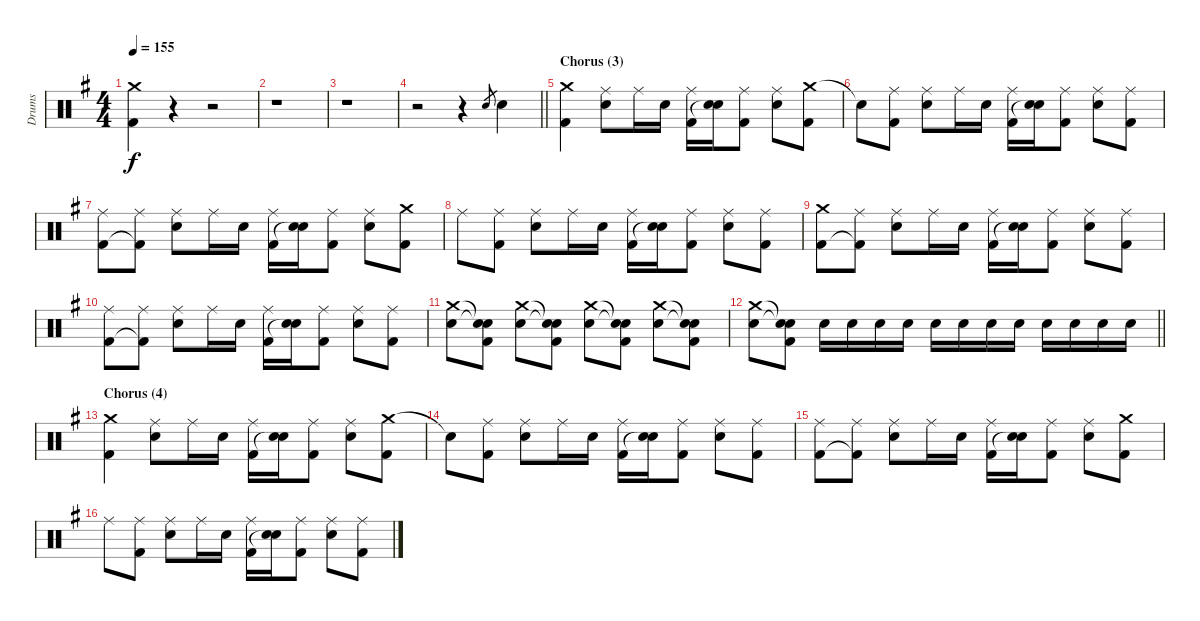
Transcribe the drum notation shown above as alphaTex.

\track ("Drums" "Drums") {instrument percussion}
\staff {score}
\articulation defaults
\ts (4 4)
\tempo 155
\clef neutral
\ks eminor
("Crash medium (hit)" "Kick (hit) 2").4{dy f} r.4 r.2 |
r.1 |
r.1 |
\barLineRight lightlight
r.2 r.4 "Electric Snare (hit)".8{gr} "Electric Snare (hit)".4 |
\section ("" "Chorus (3)")
("Crash medium (hit)" "Kick (hit) 2").4 ("Ride (middle)" "Electric Snare (hit)").8 "Ride (middle)".16 "Electric Snare (hit)".16 ("Ride (middle)" "Kick (hit) 2").16 ("Electric Snare (hit)" "Snare (hit)"{t}).16 ("Ride (middle)" "Kick (hit) 2").8 ("Ride (middle)" "Electric Snare (hit)").8 ("Crash medium (hit)" "Kick (hit) 2").8 |
"Snare (hit)"{t}.8 ("Ride (middle)" "Kick (hit) 2").8 ("Ride (middle)" "Electric Snare (hit)").8 "Ride (middle)".16 "Electric Snare (hit)".16 ("Ride (middle)" "Kick (hit) 2").16 ("Electric Snare (hit)" "Snare (hit)"{t}).16 ("Ride (middle)" "Kick (hit) 2").8 ("Ride (middle)" "Electric Snare (hit)").8 ("Ride (middle)" "Kick (hit) 2").8 |
("Ride (middle)" "Kick (hit) 2").8 ("Ride (middle)" "Kick (hit) 2"{t}).8 ("Ride (middle)" "Electric Snare (hit)").8 "Ride (middle)".16 "Electric Snare (hit)".16 ("Ride (middle)" "Kick (hit) 2").16 ("Electric Snare (hit)" "Snare (hit)"{t}).16 ("Ride (middle)" "Kick (hit) 2").8 ("Ride (middle)" "Electric Snare (hit)").8 ("Crash medium (hit)" "Kick (hit) 2").8 |
"Ride (middle)".8 ("Ride (middle)" "Kick (hit) 2").8 ("Ride (middle)" "Electric Snare (hit)").8 "Ride (middle)".16 "Electric Snare (hit)".16 ("Ride (middle)" "Kick (hit) 2").16 ("Electric Snare (hit)" "Snare (hit)"{t}).16 ("Ride (middle)" "Kick (hit) 2").8 ("Ride (middle)" "Electric Snare (hit)").8 ("Ride (middle)" "Kick (hit) 2").8 |
("Crash medium (hit)" "Kick (hit) 2").8 ("Ride (middle)" "Kick (hit) 2"{t}).8 ("Ride (middle)" "Electric Snare (hit)").8 "Ride (middle)".16 "Electric Snare (hit)".16 ("Ride (middle)" "Kick (hit) 2").16 ("Electric Snare (hit)" "Snare (hit)"{t}).16 ("Ride (middle)" "Kick (hit) 2").8 ("Ride (middle)" "Electric Snare (hit)").8 ("Ride (middle)" "Kick (hit) 2").8 |
("Ride (middle)" "Kick (hit) 2").8 ("Ride (middle)" "Kick (hit) 2"{t}).8 ("Ride (middle)" "Electric Snare (hit)").8 "Ride (middle)".16 "Electric Snare (hit)".16 ("Ride (middle)" "Kick (hit) 2").16 ("Electric Snare (hit)" "Snare (hit)"{t}).16 ("Ride (middle)" "Kick (hit) 2").8 ("Ride (middle)" "Electric Snare (hit)").8 ("Ride (middle)" "Kick (hit) 2").8 |
("Crash medium (hit)" "Electric Snare (hit)").8 ("Snare (hit)"{t} "Snare (hit)"{t} "Kick (hit) 2").8 ("Crash medium (hit)" "Electric Snare (hit)").8 ("Snare (hit)"{t} "Snare (hit)"{t} "Kick (hit) 2").8 ("Crash medium (hit)" "Electric Snare (hit)").8 ("Snare (hit)"{t} "Snare (hit)"{t} "Kick (hit) 2").8 ("Crash medium (hit)" "Electric Snare (hit)").8 ("Snare (hit)"{t} "Snare (hit)"{t} "Kick (hit) 2").8 |
\barLineRight lightlight
("Crash medium (hit)" "Electric Snare (hit)").8 ("Snare (hit)"{t} "Snare (hit)"{t} "Kick (hit) 2").8 "Electric Snare (hit)".16 "Electric Snare (hit)".16 "Electric Snare (hit)".16 "Electric Snare (hit)".16 "Electric Snare (hit)".16 "Electric Snare (hit)".16 "Electric Snare (hit)".16 "Electric Snare (hit)".16 "Electric Snare (hit)".16 "Electric Snare (hit)".16 "Electric Snare (hit)".16 "Electric Snare (hit)".16 |
\section ("" "Chorus (4)")
("Crash medium (hit)" "Kick (hit) 2").4 ("Ride (middle)" "Electric Snare (hit)").8 "Ride (middle)".16 "Electric Snare (hit)".16 ("Ride (middle)" "Kick (hit) 2").16 ("Electric Snare (hit)" "Snare (hit)"{t}).16 ("Ride (middle)" "Kick (hit) 2").8 ("Ride (middle)" "Electric Snare (hit)").8 ("Crash medium (hit)" "Kick (hit) 2").8 |
"Snare (hit)"{t}.8 ("Ride (middle)" "Kick (hit) 2").8 ("Ride (middle)" "Electric Snare (hit)").8 "Ride (middle)".16 "Electric Snare (hit)".16 ("Ride (middle)" "Kick (hit) 2").16 ("Electric Snare (hit)" "Snare (hit)"{t}).16 ("Ride (middle)" "Kick (hit) 2").8 ("Ride (middle)" "Electric Snare (hit)").8 ("Ride (middle)" "Kick (hit) 2").8 |
("Ride (middle)" "Kick (hit) 2").8 ("Ride (middle)" "Kick (hit) 2"{t}).8 ("Ride (middle)" "Electric Snare (hit)").8 "Ride (middle)".16 "Electric Snare (hit)".16 ("Ride (middle)" "Kick (hit) 2").16 ("Electric Snare (hit)" "Snare (hit)"{t}).16 ("Ride (middle)" "Kick (hit) 2").8 ("Ride (middle)" "Electric Snare (hit)").8 ("Crash medium (hit)" "Kick (hit) 2").8 |
"Ride (middle)".8 ("Ride (middle)" "Kick (hit) 2").8 ("Ride (middle)" "Electric Snare (hit)").8 "Ride (middle)".16 "Electric Snare (hit)".16 ("Ride (middle)" "Kick (hit) 2").16 ("Electric Snare (hit)" "Snare (hit)"{t}).16 ("Ride (middle)" "Kick (hit) 2").8 ("Ride (middle)" "Electric Snare (hit)").8 ("Ride (middle)" "Kick (hit) 2").8
